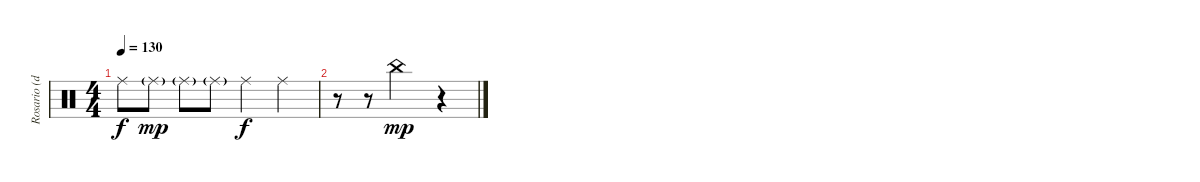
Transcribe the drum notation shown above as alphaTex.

\track ("Rosario (drum)" "Rosario (d") {instrument percussion}
\staff {score}
\articulation defaults
\ts (4 4)
\tempo 130
\clef neutral
\ks c "Ride (middle)".8{dy f} "Ride (middle)"{g}.8{dy mp} "Ride (middle)"{g}.8 "Ride (middle)"{g}.8 "Ride (middle)".4{dy f} "Ride (middle)".4
|
r.8 r.8 "China (hit)".2{dy mp} r.4
